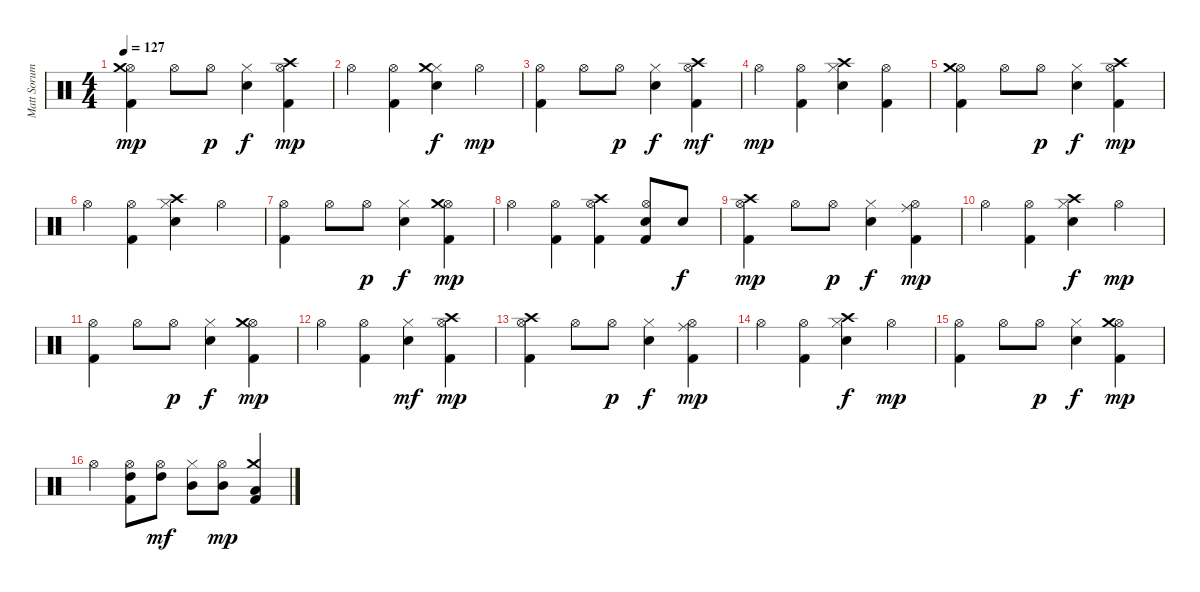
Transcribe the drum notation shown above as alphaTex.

\track ("Matt Sorum" "Matt Sorum") {instrument percussion}
\staff {score}
\articulation defaults
\ts (4 4)
\tempo 127
\clef neutral
\ks c
("Kick (hit) 2" "Hi-Hat (open)" "Crash medium (hit)").4{dy mp} "Hi-Hat (open)".8 "Hi-Hat (open)".8{dy p} ("Snare (hit) 2" "Hi-Hat (closed)").4{dy f} ("Kick (hit) 2" "Hi-Hat (open)" "Crash high (hit)").4{dy mp} |
"Hi-Hat (open)".4 ("Kick (hit) 2" "Hi-Hat (open)").4 ("Snare (hit) 2" "Hi-Hat (closed)" "Crash medium (hit)").4{dy f} "Hi-Hat (open)".4{dy mp} |
("Kick (hit) 2" "Hi-Hat (open)").4 "Hi-Hat (open)".8 "Hi-Hat (open)".8{dy p} ("Snare (hit) 2" "Hi-Hat (closed)").4{dy f} ("Kick (hit) 2" "Hi-Hat (open)" "Crash high (hit)").4{dy mf} |
"Hi-Hat (open)".4{dy mp} ("Kick (hit) 2" "Hi-Hat (open)").4 ("Snare (hit) 2" "Hi-Hat (closed)" "Crash high (hit)").4 ("Kick (hit) 2" "Hi-Hat (open)").4 |
("Kick (hit) 2" "Hi-Hat (open)" "Crash medium (hit)").4 "Hi-Hat (open)".8 "Hi-Hat (open)".8{dy p} ("Snare (hit) 2" "Hi-Hat (closed)").4{dy f} ("Kick (hit) 2" "Hi-Hat (open)" "Crash high (hit)").4{dy mp} |
"Hi-Hat (open)".4 ("Kick (hit) 2" "Hi-Hat (open)").4 ("Snare (hit) 2" "Hi-Hat (closed)" "Crash high (hit)").4 "Hi-Hat (open)".4 |
("Kick (hit) 2" "Hi-Hat (open)").4 "Hi-Hat (open)".8 "Hi-Hat (open)".8{dy p} ("Snare (hit) 2" "Hi-Hat (closed)").4{dy f} ("Kick (hit) 2" "Hi-Hat (open)" "Crash medium (hit)").4{dy mp} |
"Hi-Hat (open)".4 ("Kick (hit) 2" "Hi-Hat (open)").4 ("Kick (hit) 2" "Hi-Hat (open)" "Crash high (hit)").4 ("Kick (hit) 2" "Snare (hit) 2" "Hi-Hat (open)").8 "Snare (hit) 2".8{dy f} |
("Kick (hit) 2" "Hi-Hat (open)" "Crash high (hit)").4{dy mp} "Hi-Hat (open)".8 "Hi-Hat (open)".8{dy p} ("Snare (hit) 2" "Hi-Hat (closed)").4{dy f} ("Kick (hit) 2" "Hi-Hat (open)" "Ride (middle)").4{dy mp} |
"Hi-Hat (open)".4 ("Kick (hit) 2" "Hi-Hat (open)").4 ("Snare (hit) 2" "Hi-Hat (closed)" "Crash high (hit)").4{dy f} "Hi-Hat (open)".4{dy mp} |
("Kick (hit) 2" "Hi-Hat (open)").4 "Hi-Hat (open)".8 "Hi-Hat (open)".8{dy p} ("Snare (hit) 2" "Hi-Hat (closed)").4{dy f} ("Kick (hit) 2" "Hi-Hat (open)" "Crash medium (hit)").4{dy mp} |
"Hi-Hat (open)".4 ("Kick (hit) 2" "Hi-Hat (open)").4 ("Snare (hit) 2" "Hi-Hat (closed)").4{dy mf} ("Kick (hit) 2" "Hi-Hat (open)" "Crash high (hit)").4{dy mp} |
("Kick (hit) 2" "Hi-Hat (open)" "Crash high (hit)").4 "Hi-Hat (open)".8 "Hi-Hat (open)".8{dy p} ("Snare (hit) 2" "Hi-Hat (closed)").4{dy f} ("Kick (hit) 2" "Hi-Hat (open)" "Ride (middle)").4{dy mp} |
"Hi-Hat (open)".4 ("Kick (hit) 2" "Hi-Hat (open)").4 ("Snare (hit) 2" "Hi-Hat (closed)" "Crash high (hit)").4{dy f} "Hi-Hat (open)".4{dy mp} |
("Kick (hit) 2" "Hi-Hat (open)").4 "Hi-Hat (open)".8 "Hi-Hat (open)".8{dy p} ("Snare (hit) 2" "Hi-Hat (closed)").4{dy f} ("Kick (hit) 2" "Hi-Hat (open)" "Crash medium (hit)").4{dy mp} |
"Hi-Hat (open)".4 ("Kick (hit) 2" "Hi-Hat (open)" "High Tom (hit)").8 ("Hi-Hat (open)" "High Tom (hit)").8{dy mf} ("Hi-Hat (closed)" "Mid Tom (hit)").8 ("Hi-Hat (open)" "Mid Tom (hit)").8{dy mp} ("Kick (hit) 2" "Low Tom (hit)" "Crash medium (hit)").4
